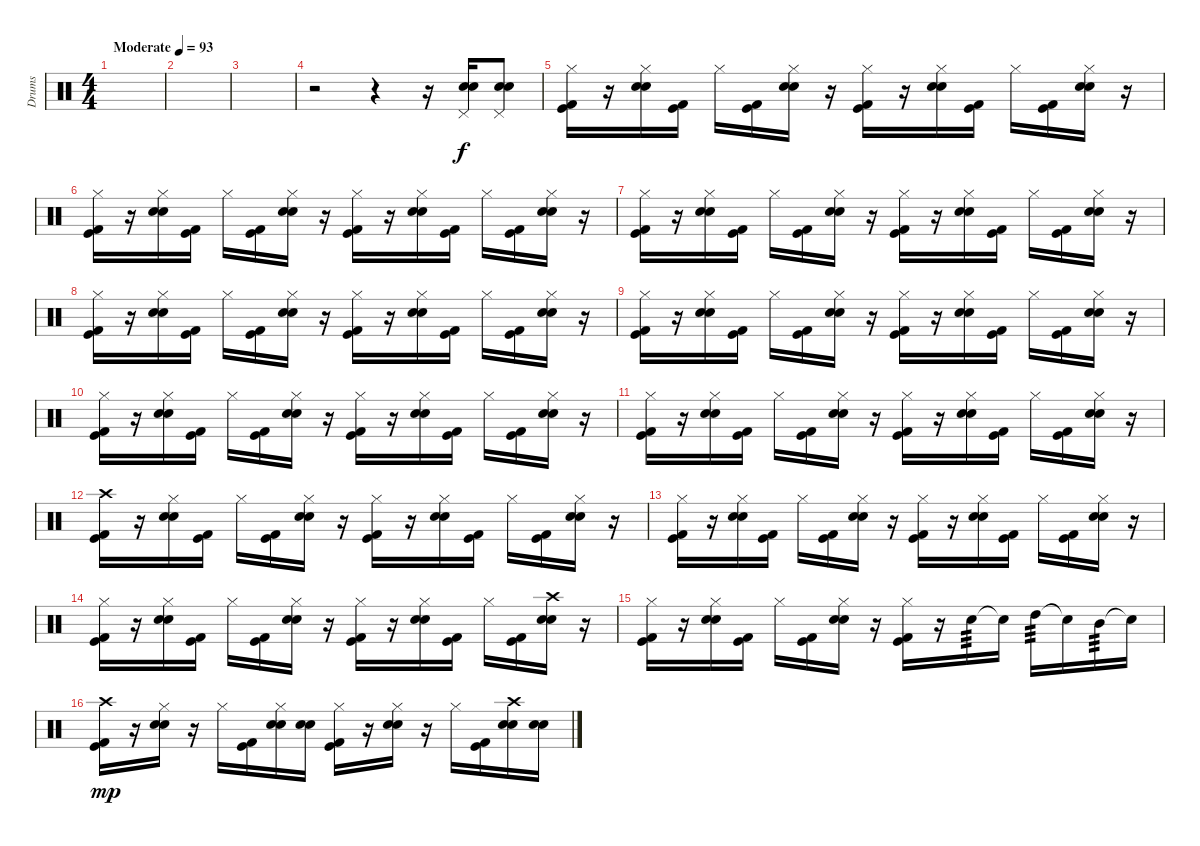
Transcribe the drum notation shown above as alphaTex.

\track ("Drums" "Drums") {instrument percussion}
\staff {score}
\articulation defaults
\ts (4 4)
\tempo (93 "Moderate")
\clef neutral
\ks c
|
|
|
r.2 r.4 r.16 ("Pedal Hi-Hat (hit)" "Electric Snare (hit)" "Snare (hit) 2").16 ("Pedal Hi-Hat (hit)" "Electric Snare (hit)" "Snare (hit) 2").8 |
("Hi-Hat (closed)" "Kick (hit)" "Kick (hit) 2").16 r.16 ("Hi-Hat (closed)" "Electric Snare (hit)" "Snare (hit) 2").16 ("Kick (hit)" "Kick (hit) 2").16 "Hi-Hat (closed)".16 ("Kick (hit)" "Kick (hit) 2").16 ("Hi-Hat (closed)" "Electric Snare (hit)" "Snare (hit) 2").16 r.16 ("Hi-Hat (closed)" "Kick (hit)" "Kick (hit) 2").16 r.16 ("Hi-Hat (closed)" "Electric Snare (hit)" "Snare (hit) 2").16 ("Kick (hit)" "Kick (hit) 2").16 "Hi-Hat (closed)".16 ("Kick (hit)" "Kick (hit) 2").16 ("Hi-Hat (closed)" "Electric Snare (hit)" "Snare (hit) 2").16 r.16 |
("Hi-Hat (closed)" "Kick (hit)" "Kick (hit) 2").16 r.16 ("Hi-Hat (closed)" "Electric Snare (hit)" "Snare (hit) 2").16 ("Kick (hit)" "Kick (hit) 2").16 "Hi-Hat (closed)".16 ("Kick (hit)" "Kick (hit) 2").16 ("Hi-Hat (closed)" "Electric Snare (hit)" "Snare (hit) 2").16 r.16 ("Hi-Hat (closed)" "Kick (hit)" "Kick (hit) 2").16 r.16 ("Hi-Hat (closed)" "Electric Snare (hit)" "Snare (hit) 2").16 ("Kick (hit)" "Kick (hit) 2").16 "Hi-Hat (closed)".16 ("Kick (hit)" "Kick (hit) 2").16 ("Hi-Hat (closed)" "Electric Snare (hit)" "Snare (hit) 2").16 r.16 |
("Hi-Hat (closed)" "Kick (hit)" "Kick (hit) 2").16 r.16 ("Hi-Hat (closed)" "Electric Snare (hit)" "Snare (hit) 2").16 ("Kick (hit)" "Kick (hit) 2").16 "Hi-Hat (closed)".16 ("Kick (hit)" "Kick (hit) 2").16 ("Hi-Hat (closed)" "Electric Snare (hit)" "Snare (hit) 2").16 r.16 ("Hi-Hat (closed)" "Kick (hit)" "Kick (hit) 2").16 r.16 ("Hi-Hat (closed)" "Electric Snare (hit)" "Snare (hit) 2").16 ("Kick (hit)" "Kick (hit) 2").16 "Hi-Hat (closed)".16 ("Kick (hit)" "Kick (hit) 2").16 ("Hi-Hat (closed)" "Electric Snare (hit)" "Snare (hit) 2").16 r.16 |
("Hi-Hat (closed)" "Kick (hit)" "Kick (hit) 2").16 r.16 ("Hi-Hat (closed)" "Electric Snare (hit)" "Snare (hit) 2").16 ("Kick (hit)" "Kick (hit) 2").16 "Hi-Hat (closed)".16 ("Kick (hit)" "Kick (hit) 2").16 ("Hi-Hat (closed)" "Electric Snare (hit)" "Snare (hit) 2").16 r.16 ("Hi-Hat (closed)" "Kick (hit)" "Kick (hit) 2").16 r.16 ("Hi-Hat (closed)" "Electric Snare (hit)" "Snare (hit) 2").16 ("Kick (hit)" "Kick (hit) 2").16 "Hi-Hat (closed)".16 ("Kick (hit)" "Kick (hit) 2").16 ("Hi-Hat (closed)" "Electric Snare (hit)" "Snare (hit) 2").16 r.16 |
("Hi-Hat (closed)" "Kick (hit)" "Kick (hit) 2").16 r.16 ("Hi-Hat (closed)" "Electric Snare (hit)" "Snare (hit) 2").16 ("Kick (hit)" "Kick (hit) 2").16 "Hi-Hat (closed)".16 ("Kick (hit)" "Kick (hit) 2").16 ("Hi-Hat (closed)" "Electric Snare (hit)" "Snare (hit) 2").16 r.16 ("Hi-Hat (closed)" "Kick (hit)" "Kick (hit) 2").16 r.16 ("Hi-Hat (closed)" "Electric Snare (hit)" "Snare (hit) 2").16 ("Kick (hit)" "Kick (hit) 2").16 "Hi-Hat (closed)".16 ("Kick (hit)" "Kick (hit) 2").16 ("Hi-Hat (closed)" "Electric Snare (hit)" "Snare (hit) 2").16 r.16 |
("Hi-Hat (closed)" "Kick (hit)" "Kick (hit) 2").16 r.16 ("Hi-Hat (closed)" "Electric Snare (hit)" "Snare (hit) 2").16 ("Kick (hit)" "Kick (hit) 2").16 "Hi-Hat (closed)".16 ("Kick (hit)" "Kick (hit) 2").16 ("Hi-Hat (closed)" "Electric Snare (hit)" "Snare (hit) 2").16 r.16 ("Hi-Hat (closed)" "Kick (hit)" "Kick (hit) 2").16 r.16 ("Hi-Hat (closed)" "Electric Snare (hit)" "Snare (hit) 2").16 ("Kick (hit)" "Kick (hit) 2").16 "Hi-Hat (closed)".16 ("Kick (hit)" "Kick (hit) 2").16 ("Hi-Hat (closed)" "Electric Snare (hit)" "Snare (hit) 2").16 r.16 |
("Hi-Hat (closed)" "Kick (hit)" "Kick (hit) 2").16 r.16 ("Hi-Hat (closed)" "Electric Snare (hit)" "Snare (hit) 2").16 ("Kick (hit)" "Kick (hit) 2").16 "Hi-Hat (closed)".16 ("Kick (hit)" "Kick (hit) 2").16 ("Hi-Hat (closed)" "Electric Snare (hit)" "Snare (hit) 2").16 r.16 ("Hi-Hat (closed)" "Kick (hit)" "Kick (hit) 2").16 r.16 ("Hi-Hat (closed)" "Electric Snare (hit)" "Snare (hit) 2").16 ("Kick (hit)" "Kick (hit) 2").16 "Hi-Hat (closed)".16 ("Kick (hit)" "Kick (hit) 2").16 ("Hi-Hat (closed)" "Electric Snare (hit)" "Snare (hit) 2").16 r.16 |
("Crash high (hit)" "Kick (hit)" "Kick (hit) 2").16 r.16 ("Hi-Hat (closed)" "Electric Snare (hit)" "Snare (hit) 2").16 ("Kick (hit)" "Kick (hit) 2").16 "Hi-Hat (closed)".16 ("Kick (hit)" "Kick (hit) 2").16 ("Hi-Hat (closed)" "Electric Snare (hit)" "Snare (hit) 2").16 r.16 ("Hi-Hat (closed)" "Kick (hit)" "Kick (hit) 2").16 r.16 ("Hi-Hat (closed)" "Electric Snare (hit)" "Snare (hit) 2").16 ("Kick (hit)" "Kick (hit) 2").16 "Hi-Hat (closed)".16 ("Kick (hit)" "Kick (hit) 2").16 ("Hi-Hat (closed)" "Electric Snare (hit)" "Snare (hit) 2").16 r.16 |
("Hi-Hat (closed)" "Kick (hit)" "Kick (hit) 2").16 r.16 ("Hi-Hat (closed)" "Electric Snare (hit)" "Snare (hit) 2").16 ("Kick (hit)" "Kick (hit) 2").16 "Hi-Hat (closed)".16 ("Kick (hit)" "Kick (hit) 2").16 ("Hi-Hat (closed)" "Electric Snare (hit)" "Snare (hit) 2").16 r.16 ("Hi-Hat (closed)" "Kick (hit)" "Kick (hit) 2").16 r.16 ("Hi-Hat (closed)" "Electric Snare (hit)" "Snare (hit) 2").16 ("Kick (hit)" "Kick (hit) 2").16 "Hi-Hat (closed)".16 ("Kick (hit)" "Kick (hit) 2").16 ("Hi-Hat (closed)" "Electric Snare (hit)" "Snare (hit) 2").16 r.16 |
("Hi-Hat (closed)" "Kick (hit)" "Kick (hit) 2").16 r.16 ("Hi-Hat (closed)" "Electric Snare (hit)" "Snare (hit) 2").16 ("Kick (hit)" "Kick (hit) 2").16 "Hi-Hat (closed)".16 ("Kick (hit)" "Kick (hit) 2").16 ("Hi-Hat (closed)" "Electric Snare (hit)" "Snare (hit) 2").16 r.16 ("Hi-Hat (closed)" "Kick (hit)" "Kick (hit) 2").16 r.16 ("Hi-Hat (closed)" "Electric Snare (hit)" "Snare (hit) 2").16 ("Kick (hit)" "Kick (hit) 2").16 "Hi-Hat (closed)".16 ("Kick (hit)" "Kick (hit) 2").16 ("Crash high (hit)" "Electric Snare (hit)" "Snare (hit) 2").16 r.16 |
("Hi-Hat (closed)" "Kick (hit)" "Kick (hit) 2").16 r.16 ("Hi-Hat (closed)" "Electric Snare (hit)" "Snare (hit) 2").16 ("Kick (hit)" "Kick (hit) 2").16 "Hi-Hat (closed)".16 ("Kick (hit)" "Kick (hit) 2").16 ("Hi-Hat (closed)" "Electric Snare (hit)" "Snare (hit) 2").16 r.16 ("Hi-Hat (closed)" "Kick (hit)" "Kick (hit) 2").16 r.16 "Electric Snare (hit)".16{tp 3 dy f} "Snare (hit)"{t}.16 "High Tom (hit)".16{tp 3} "Snare (hit)"{t}.16 "Mid Tom (hit)".16{tp 3} "Snare (hit)"{t}.16 |
("Crash high (hit)" "Kick (hit)" "Kick (hit) 2").16{dy mp} r.16 ("Hi-Hat (closed)" "Electric Snare (hit)" "Snare (hit) 2").16 r.16 "Hi-Hat (closed)".16 ("Kick (hit)" "Kick (hit) 2").16 ("Hi-Hat (closed)" "Electric Snare (hit)" "Snare (hit) 2").16 ("Electric Snare (hit)" "Snare (hit) 2").16 ("Hi-Hat (closed)" "Kick (hit)" "Kick (hit) 2").16 r.16 ("Hi-Hat (closed)" "Electric Snare (hit)" "Snare (hit) 2").16 r.16 "Hi-Hat (closed)".16 ("Kick (hit)" "Kick (hit) 2").16 ("Crash high (hit)" "Electric Snare (hit)" "Snare (hit) 2").16 ("Electric Snare (hit)" "Snare (hit) 2").16
